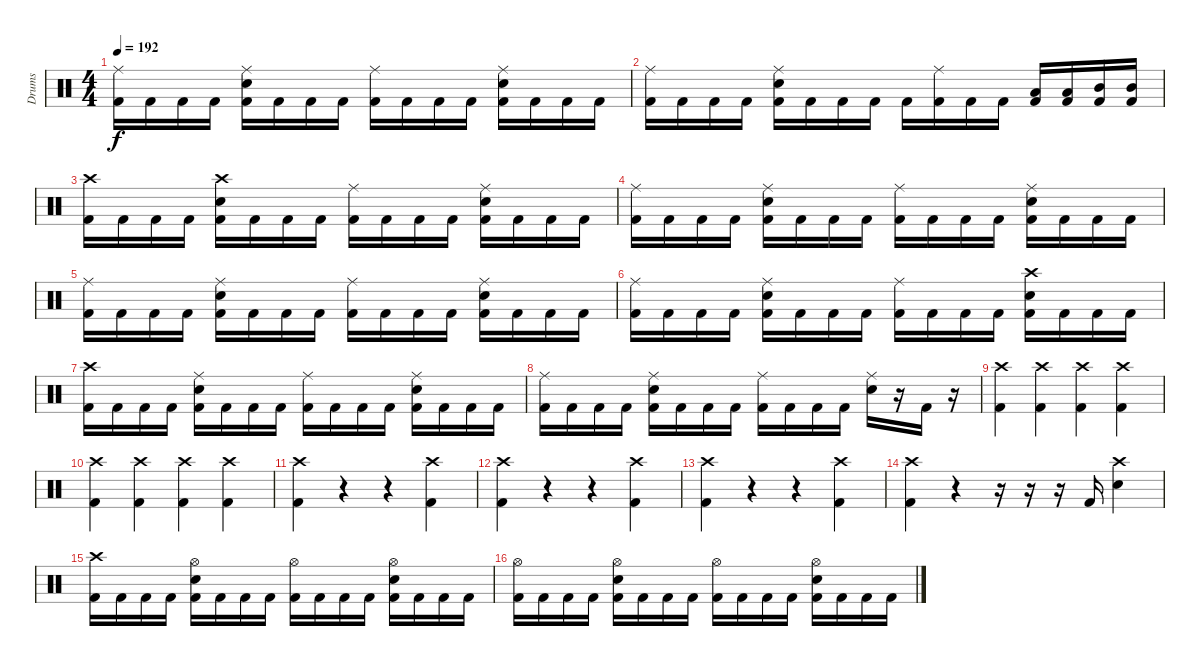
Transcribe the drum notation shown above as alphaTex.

\track ("Drums" "Drums") {instrument percussion}
\staff {score}
\articulation defaults
\ts (4 4)
\tempo 192
\clef neutral
\ks c
("Ride (middle)" "Kick (hit) 2").16{dy f} "Kick (hit) 2".16 "Kick (hit) 2".16 "Kick (hit) 2".16 ("Ride (middle)" "Electric Snare (hit)" "Kick (hit) 2").16 "Kick (hit) 2".16 "Kick (hit) 2".16 "Kick (hit) 2".16 ("Ride (middle)" "Kick (hit) 2").16 "Kick (hit) 2".16 "Kick (hit) 2".16 "Kick (hit) 2".16 ("Ride (middle)" "Electric Snare (hit)" "Kick (hit) 2").16 "Kick (hit) 2".16 "Kick (hit) 2".16 "Kick (hit) 2".16 |
("Ride (middle)" "Kick (hit) 2").16 "Kick (hit) 2".16 "Kick (hit) 2".16 "Kick (hit) 2".16 ("Ride (middle)" "Electric Snare (hit)" "Kick (hit) 2").16 "Kick (hit) 2".16 "Kick (hit) 2".16 "Kick (hit) 2".16 "Kick (hit) 2".16 ("Ride (middle)" "Kick (hit) 2").16 "Kick (hit) 2".16 "Kick (hit) 2".16 ("Low Tom (hit)" "Kick (hit) 2").16 ("Low Tom (hit)" "Kick (hit) 2").16 ("Mid Tom (hit)" "Kick (hit) 2").16 ("Mid Tom (hit)" "Kick (hit) 2").16 |
("Crash high (hit)" "Kick (hit) 2").16 "Kick (hit) 2".16 "Kick (hit) 2".16 "Kick (hit) 2".16 ("Crash high (hit)" "Electric Snare (hit)" "Kick (hit) 2").16 "Kick (hit) 2".16 "Kick (hit) 2".16 "Kick (hit) 2".16 ("Ride (middle)" "Kick (hit) 2").16 "Kick (hit) 2".16 "Kick (hit) 2".16 "Kick (hit) 2".16 ("Ride (middle)" "Electric Snare (hit)" "Kick (hit) 2").16 "Kick (hit) 2".16 "Kick (hit) 2".16 "Kick (hit) 2".16 |
("Ride (middle)" "Kick (hit) 2").16 "Kick (hit) 2".16 "Kick (hit) 2".16 "Kick (hit) 2".16 ("Ride (middle)" "Electric Snare (hit)" "Kick (hit) 2").16 "Kick (hit) 2".16 "Kick (hit) 2".16 "Kick (hit) 2".16 ("Ride (middle)" "Kick (hit) 2").16 "Kick (hit) 2".16 "Kick (hit) 2".16 "Kick (hit) 2".16 ("Ride (middle)" "Electric Snare (hit)" "Kick (hit) 2").16 "Kick (hit) 2".16 "Kick (hit) 2".16 "Kick (hit) 2".16 |
("Ride (middle)" "Kick (hit) 2").16 "Kick (hit) 2".16 "Kick (hit) 2".16 "Kick (hit) 2".16 ("Ride (middle)" "Electric Snare (hit)" "Kick (hit) 2").16 "Kick (hit) 2".16 "Kick (hit) 2".16 "Kick (hit) 2".16 ("Ride (middle)" "Kick (hit) 2").16 "Kick (hit) 2".16 "Kick (hit) 2".16 "Kick (hit) 2".16 ("Ride (middle)" "Electric Snare (hit)" "Kick (hit) 2").16 "Kick (hit) 2".16 "Kick (hit) 2".16 "Kick (hit) 2".16 |
("Ride (middle)" "Kick (hit) 2").16 "Kick (hit) 2".16 "Kick (hit) 2".16 "Kick (hit) 2".16 ("Ride (middle)" "Electric Snare (hit)" "Kick (hit) 2").16 "Kick (hit) 2".16 "Kick (hit) 2".16 "Kick (hit) 2".16 ("Ride (middle)" "Kick (hit) 2").16 "Kick (hit) 2".16 "Kick (hit) 2".16 "Kick (hit) 2".16 ("Crash high (hit)" "Electric Snare (hit)" "Kick (hit) 2").16 "Kick (hit) 2".16 "Kick (hit) 2".16 "Kick (hit) 2".16 |
("Crash high (hit)" "Kick (hit) 2").16 "Kick (hit) 2".16 "Kick (hit) 2".16 "Kick (hit) 2".16 ("Ride (middle)" "Electric Snare (hit)" "Kick (hit) 2").16 "Kick (hit) 2".16 "Kick (hit) 2".16 "Kick (hit) 2".16 ("Ride (middle)" "Kick (hit) 2").16 "Kick (hit) 2".16 "Kick (hit) 2".16 "Kick (hit) 2".16 ("Ride (middle)" "Electric Snare (hit)" "Kick (hit) 2").16 "Kick (hit) 2".16 "Kick (hit) 2".16 "Kick (hit) 2".16 |
("Ride (middle)" "Kick (hit) 2").16 "Kick (hit) 2".16 "Kick (hit) 2".16 "Kick (hit) 2".16 ("Ride (middle)" "Electric Snare (hit)" "Kick (hit) 2").16 "Kick (hit) 2".16 "Kick (hit) 2".16 "Kick (hit) 2".16 ("Ride (middle)" "Kick (hit) 2").16 "Kick (hit) 2".16 "Kick (hit) 2".16 "Kick (hit) 2".16 ("Ride (middle)" "Electric Snare (hit)").16 r.16 "Kick (hit) 2".16 r.16 |
("Crash high (hit)" "Kick (hit) 2").4 ("Crash high (hit)" "Kick (hit) 2").4 ("Crash high (hit)" "Kick (hit) 2").4 ("Crash high (hit)" "Kick (hit) 2").4 |
("Crash high (hit)" "Kick (hit) 2").4 ("Crash high (hit)" "Kick (hit) 2").4 ("Crash high (hit)" "Kick (hit) 2").4 ("Crash high (hit)" "Kick (hit) 2").4 |
("Crash high (hit)" "Kick (hit) 2").4 r.4 r.4 ("Crash high (hit)" "Kick (hit) 2").4 |
("Crash high (hit)" "Kick (hit) 2").4 r.4 r.4 ("Crash high (hit)" "Kick (hit) 2").4 |
("Crash high (hit)" "Kick (hit) 2").4 r.4 r.4 ("Crash high (hit)" "Kick (hit) 2").4 |
("Crash high (hit)" "Kick (hit) 2").4 r.4 r.16 r.16 r.16 "Kick (hit) 2".16 ("Crash high (hit)" "Electric Snare (hit)").4 |
("Crash high (hit)" "Kick (hit) 2").16 "Kick (hit) 2".16 "Kick (hit) 2".16 "Kick (hit) 2".16 ("Hi-Hat (open)" "Electric Snare (hit)" "Kick (hit) 2").16 "Kick (hit) 2".16 "Kick (hit) 2".16 "Kick (hit) 2".16 ("Hi-Hat (open)" "Kick (hit) 2").16 "Kick (hit) 2".16 "Kick (hit) 2".16 "Kick (hit) 2".16 ("Hi-Hat (open)" "Electric Snare (hit)" "Kick (hit) 2").16 "Kick (hit) 2".16 "Kick (hit) 2".16 "Kick (hit) 2".16 |
("Hi-Hat (open)" "Kick (hit) 2").16 "Kick (hit) 2".16 "Kick (hit) 2".16 "Kick (hit) 2".16 ("Hi-Hat (open)" "Electric Snare (hit)" "Kick (hit) 2").16 "Kick (hit) 2".16 "Kick (hit) 2".16 "Kick (hit) 2".16 ("Hi-Hat (open)" "Kick (hit) 2").16 "Kick (hit) 2".16 "Kick (hit) 2".16 "Kick (hit) 2".16 ("Hi-Hat (open)" "Electric Snare (hit)" "Kick (hit) 2").16 "Kick (hit) 2".16 "Kick (hit) 2".16 "Kick (hit) 2".16
